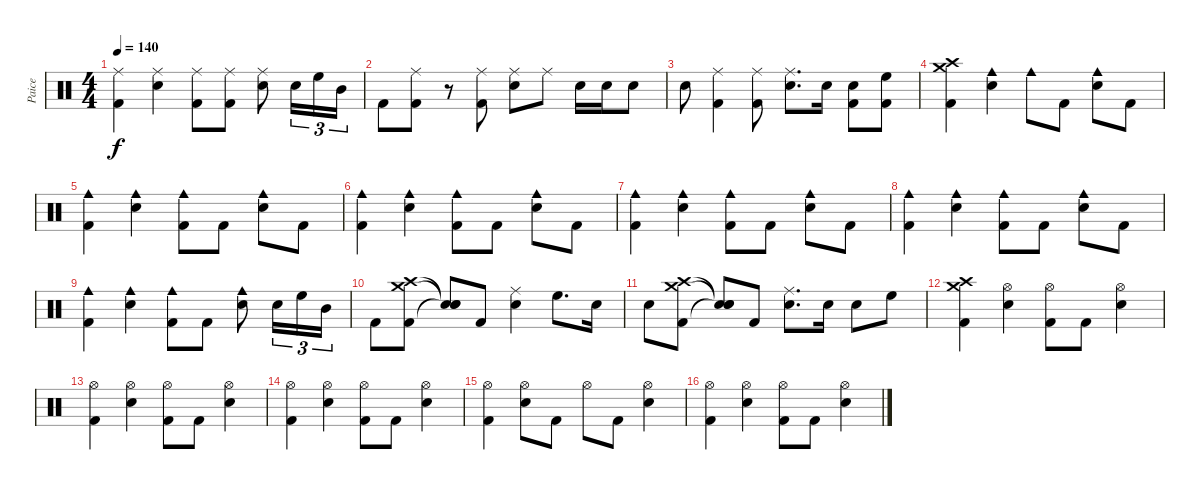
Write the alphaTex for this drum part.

\track ("Paice" "Paice") {instrument percussion}
\staff {score}
\articulation defaults
\ts (4 4)
\tempo 140
\clef neutral
\ks c
("Ride (middle)" "Kick (hit) 2").4{dy f} ("Ride (middle)" "Electric Snare (hit)").4 ("Ride (middle)" "Kick (hit) 2").8 ("Ride (middle)" "Kick (hit) 2").8 ("Ride (middle)" "Electric Snare (hit)").8 "Electric Snare (hit)".16{tu (3 2)} "High Floor Tom (hit)".16{tu (3 2)} "Mid Tom (hit)".16{tu (3 2)} |
"Kick (hit) 2".8 ("Ride (middle)" "Kick (hit) 2").8 r.8 ("Ride (middle)" "Kick (hit) 2").8 ("Ride (middle)" "Electric Snare (hit)").8 "Ride (middle)".8 "Electric Snare (hit)".16 "Electric Snare (hit)".16 "Electric Snare (hit)".8 |
"Electric Snare (hit)".8 ("Ride (middle)" "Kick (hit) 2").4 ("Ride (middle)" "Kick (hit) 2").8 ("Ride (middle)" "Electric Snare (hit)").8{d} "Electric Snare (hit)".16 ("Electric Snare (hit)" "Kick (hit) 2").8 ("High Floor Tom (hit)" "Kick (hit) 2").8 |
("Crash high (hit)" "Crash medium (hit)" "Kick (hit) 2").4 ("Cowbell medium (hit)" "Electric Snare (hit)").4 "Cowbell medium (hit)".8 "Kick (hit) 2".8 ("Cowbell medium (hit)" "Electric Snare (hit)").8 "Kick (hit) 2".8 |
("Cowbell medium (hit)" "Kick (hit) 2").4 ("Cowbell medium (hit)" "Electric Snare (hit)").4 ("Cowbell medium (hit)" "Kick (hit) 2").8 "Kick (hit) 2".8 ("Cowbell medium (hit)" "Electric Snare (hit)").8 "Kick (hit) 2".8 |
("Cowbell medium (hit)" "Kick (hit) 2").4 ("Cowbell medium (hit)" "Electric Snare (hit)").4 ("Cowbell medium (hit)" "Kick (hit) 2").8 "Kick (hit) 2".8 ("Cowbell medium (hit)" "Electric Snare (hit)").8 "Kick (hit) 2".8 |
("Cowbell medium (hit)" "Kick (hit) 2").4 ("Cowbell medium (hit)" "Electric Snare (hit)").4 ("Cowbell medium (hit)" "Kick (hit) 2").8 "Kick (hit) 2".8 ("Cowbell medium (hit)" "Electric Snare (hit)").8 "Kick (hit) 2".8 |
("Cowbell medium (hit)" "Kick (hit) 2").4 ("Cowbell medium (hit)" "Electric Snare (hit)").4 ("Cowbell medium (hit)" "Kick (hit) 2").8 "Kick (hit) 2".8 ("Cowbell medium (hit)" "Electric Snare (hit)").8 "Kick (hit) 2".8 |
("Cowbell medium (hit)" "Kick (hit) 2").4 ("Cowbell medium (hit)" "Electric Snare (hit)").4 ("Cowbell medium (hit)" "Kick (hit) 2").8 "Kick (hit) 2".8 ("Cowbell medium (hit)" "Electric Snare (hit)").8 "Electric Snare (hit)".16{tu (3 2)} "High Floor Tom (hit)".16{tu (3 2)} "Mid Tom (hit)".16{tu (3 2)} |
"Kick (hit) 2".8 ("Crash high (hit)" "Crash medium (hit)" "Kick (hit) 2").8 ("Snare (hit)"{t} "Snare (hit)"{t} "Snare (hit)"{t}).8 "Kick (hit) 2".8 ("Ride (middle)" "Electric Snare (hit)").4 "High Floor Tom (hit)".8{d} "Electric Snare (hit)".16 |
"Electric Snare (hit)".8 ("Crash high (hit)" "Crash medium (hit)" "Kick (hit) 2").8 ("Snare (hit)"{t} "Snare (hit)"{t} "Snare (hit)"{t}).8 "Kick (hit) 2".8 ("Ride (middle)" "Electric Snare (hit)").8{d} "Electric Snare (hit)".16 "Electric Snare (hit)".8 "High Floor Tom (hit)".8 |
("Crash high (hit)" "Crash medium (hit)" "Kick (hit) 2").4 ("Hi-Hat (open)" "Electric Snare (hit)").4 ("Hi-Hat (open)" "Kick (hit) 2").8 "Kick (hit) 2".8 ("Hi-Hat (open)" "Electric Snare (hit)").4 |
("Hi-Hat (open)" "Kick (hit) 2").4 ("Hi-Hat (open)" "Electric Snare (hit)").4 ("Hi-Hat (open)" "Kick (hit) 2").8 "Kick (hit) 2".8 ("Hi-Hat (open)" "Electric Snare (hit)").4 |
("Hi-Hat (open)" "Kick (hit) 2").4 ("Hi-Hat (open)" "Electric Snare (hit)").4 ("Hi-Hat (open)" "Kick (hit) 2").8 "Kick (hit) 2".8 ("Hi-Hat (open)" "Electric Snare (hit)").4 |
("Hi-Hat (open)" "Kick (hit) 2").4 ("Hi-Hat (open)" "Electric Snare (hit)").8 "Kick (hit) 2".8 "Hi-Hat (open)".8 "Kick (hit) 2".8 ("Hi-Hat (open)" "Electric Snare (hit)").4 |
("Hi-Hat (open)" "Kick (hit) 2").4 ("Hi-Hat (open)" "Electric Snare (hit)").4 ("Hi-Hat (open)" "Kick (hit) 2").8 "Kick (hit) 2".8 ("Hi-Hat (open)" "Electric Snare (hit)").4
